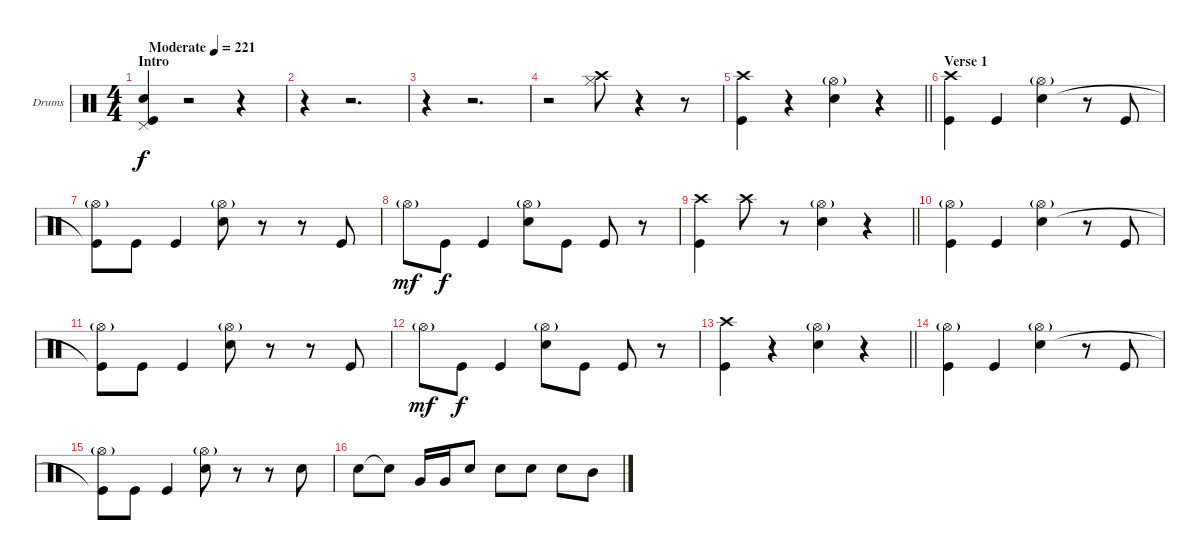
\bracketExtendMode groupsimilarinstruments
\firstSystemTrackNameOrientation horizontal
\otherSystemsTrackNameOrientation horizontal
\track ("Drumkit" "Drums") {instrument percussion}
\staff {score}
\articulation defaults
\ts (4 4)
\beaming (8 2 2 2 2)
\section ("" "Intro")
\tempo (221 "Moderate")
\clef neutral
\ks c
("Pedal Hi-Hat (hit)" "Kick (hit)" "Snare (hit) 2").4{dy f} r.2 r.4 |
r.4 r.2{d} |
r.4 r.2{d} |
r.2 ("Hi-Hat (closed)" "Crash high (hit)").8 r.4 r.8 |
\barLineRight lightlight
("Crash high (hit)" "Kick (hit)").4 r.4 ("Hi-Hat (open)"{g} "Snare (hit) 2").4 r.4 |
\section ("" "Verse 1")
("Crash high (hit)" "Kick (hit)").4 "Kick (hit)".4 ("Hi-Hat (open)"{g} "Snare (hit) 2").4 r.8 "Kick (hit)".8 |
("Hi-Hat (open)"{g} "Kick (hit)"{t}).8 "Kick (hit)".8 "Kick (hit)".4 ("Hi-Hat (open)"{g} "Snare (hit) 2").8 r.8 r.8 "Kick (hit)".8 |
"Hi-Hat (open)"{g}.8{dy mf} "Kick (hit)".8{dy f} "Kick (hit)".4 ("Hi-Hat (open)"{g} "Snare (hit) 2").8 "Kick (hit)".8 "Kick (hit)".8 r.8 |
\barLineRight lightlight
("Crash high (hit)" "Kick (hit)").4 "Crash high (hit)".8 r.8 ("Hi-Hat (open)"{g} "Snare (hit) 2").4 r.4 |
("Hi-Hat (open)"{g} "Kick (hit)").4 "Kick (hit)".4 ("Hi-Hat (open)"{g} "Snare (hit) 2").4 r.8 "Kick (hit)".8 |
("Hi-Hat (open)"{g} "Kick (hit)"{t}).8 "Kick (hit)".8 "Kick (hit)".4 ("Hi-Hat (open)"{g} "Snare (hit) 2").8 r.8 r.8 "Kick (hit)".8 |
"Hi-Hat (open)"{g}.8{dy mf} "Kick (hit)".8{dy f} "Kick (hit)".4 ("Hi-Hat (open)"{g} "Snare (hit) 2").8 "Kick (hit)".8 "Kick (hit)".8 r.8 |
\barLineRight lightlight
("Crash high (hit)" "Kick (hit)").4 r.4 ("Hi-Hat (open)"{g} "Snare (hit) 2").4 r.4 |
("Hi-Hat (open)"{g} "Kick (hit)").4 "Kick (hit)".4 ("Hi-Hat (open)"{g} "Snare (hit) 2").4 r.8 "Kick (hit)".8 |
("Hi-Hat (open)"{g} "Kick (hit)"{t}).8 "Kick (hit)".8 "Kick (hit)".4 ("Hi-Hat (open)"{g} "Snare (hit) 2").8 r.8 r.8 "Snare (hit) 2".8 |
"Snare (hit) 2".8 "Snare (hit) 2"{t}.8 "Very Low Tom (hit)".16 "Very Low Tom (hit)".16 "Snare (hit) 2".8 "Snare (hit) 2".8 "Snare (hit) 2".8 "Snare (hit) 2".8 "Mid Tom (hit)".8
